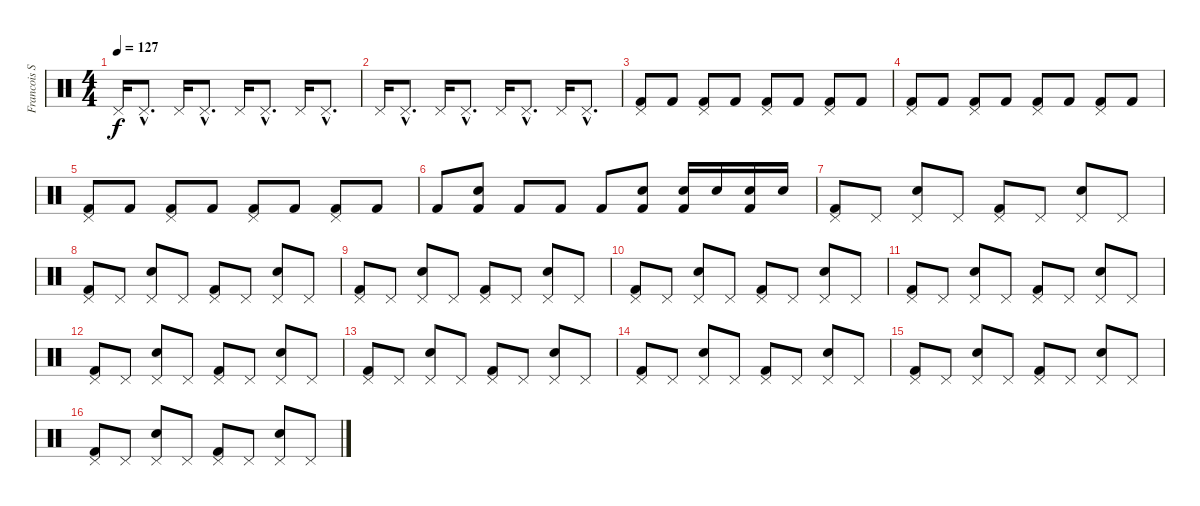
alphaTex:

\track ("Francois Soulier" "Francois S") {instrument percussion}
\staff {score}
\articulation defaults
\ts (4 4)
\tempo 127
\clef neutral
\ks c "Pedal Hi-Hat (hit)".16{dy f} "Pedal Hi-Hat (hit)"{hac}.8{d} "Pedal Hi-Hat (hit)".16 "Pedal Hi-Hat (hit)"{hac}.8{d} "Pedal Hi-Hat (hit)".16 "Pedal Hi-Hat (hit)"{hac}.8{d} "Pedal Hi-Hat (hit)".16 "Pedal Hi-Hat (hit)"{hac}.8{d}
|
"Pedal Hi-Hat (hit)".16 "Pedal Hi-Hat (hit)"{hac}.8{d} "Pedal Hi-Hat (hit)".16 "Pedal Hi-Hat (hit)"{hac}.8{d} "Pedal Hi-Hat (hit)".16 "Pedal Hi-Hat (hit)"{hac}.8{d} "Pedal Hi-Hat (hit)".16 "Pedal Hi-Hat (hit)"{hac}.8{d} |
("Pedal Hi-Hat (hit)" "Kick (hit) 2").8{volume 6} "Kick (hit) 2".8{volume 13} ("Pedal Hi-Hat (hit)" "Kick (hit) 2").8 "Kick (hit) 2".8 ("Pedal Hi-Hat (hit)" "Kick (hit) 2").8 "Kick (hit) 2".8 ("Pedal Hi-Hat (hit)" "Kick (hit) 2").8 "Kick (hit) 2".8 |
("Pedal Hi-Hat (hit)" "Kick (hit) 2").8 "Kick (hit) 2".8 ("Pedal Hi-Hat (hit)" "Kick (hit) 2").8 "Kick (hit) 2".8 ("Pedal Hi-Hat (hit)" "Kick (hit) 2").8 "Kick (hit) 2".8 ("Pedal Hi-Hat (hit)" "Kick (hit) 2").8 "Kick (hit) 2".8 |
("Pedal Hi-Hat (hit)" "Kick (hit) 2").8 "Kick (hit) 2".8 ("Pedal Hi-Hat (hit)" "Kick (hit) 2").8 "Kick (hit) 2".8 ("Pedal Hi-Hat (hit)" "Kick (hit) 2").8 "Kick (hit) 2".8 ("Pedal Hi-Hat (hit)" "Kick (hit) 2").8 "Kick (hit) 2".8 |
"Kick (hit) 2".8 ("Snare (hit) 2" "Kick (hit) 2").8 "Kick (hit) 2".8 "Kick (hit) 2".8 "Kick (hit) 2".8 ("Snare (hit) 2" "Kick (hit) 2").8 ("Snare (hit) 2" "Kick (hit) 2").16 "Snare (hit) 2".16 ("Snare (hit) 2" "Kick (hit) 2").16 "Snare (hit) 2".16 |
("Kick (hit) 2" "Pedal Hi-Hat (hit)").8 "Pedal Hi-Hat (hit)".8 ("Snare (hit) 2" "Pedal Hi-Hat (hit)").8 "Pedal Hi-Hat (hit)".8 ("Kick (hit) 2" "Pedal Hi-Hat (hit)").8 "Pedal Hi-Hat (hit)".8 ("Snare (hit) 2" "Pedal Hi-Hat (hit)").8 "Pedal Hi-Hat (hit)".8 |
("Kick (hit) 2" "Pedal Hi-Hat (hit)").8 "Pedal Hi-Hat (hit)".8 ("Snare (hit) 2" "Pedal Hi-Hat (hit)").8 "Pedal Hi-Hat (hit)".8 ("Kick (hit) 2" "Pedal Hi-Hat (hit)").8 "Pedal Hi-Hat (hit)".8 ("Snare (hit) 2" "Pedal Hi-Hat (hit)").8 "Pedal Hi-Hat (hit)".8 |
("Kick (hit) 2" "Pedal Hi-Hat (hit)").8 "Pedal Hi-Hat (hit)".8 ("Snare (hit) 2" "Pedal Hi-Hat (hit)").8 "Pedal Hi-Hat (hit)".8 ("Kick (hit) 2" "Pedal Hi-Hat (hit)").8 "Pedal Hi-Hat (hit)".8 ("Snare (hit) 2" "Pedal Hi-Hat (hit)").8 "Pedal Hi-Hat (hit)".8 |
("Kick (hit) 2" "Pedal Hi-Hat (hit)").8 "Pedal Hi-Hat (hit)".8 ("Snare (hit) 2" "Pedal Hi-Hat (hit)").8 "Pedal Hi-Hat (hit)".8 ("Kick (hit) 2" "Pedal Hi-Hat (hit)").8 "Pedal Hi-Hat (hit)".8 ("Snare (hit) 2" "Pedal Hi-Hat (hit)").8 "Pedal Hi-Hat (hit)".8 |
("Kick (hit) 2" "Pedal Hi-Hat (hit)").8 "Pedal Hi-Hat (hit)".8 ("Snare (hit) 2" "Pedal Hi-Hat (hit)").8 "Pedal Hi-Hat (hit)".8 ("Kick (hit) 2" "Pedal Hi-Hat (hit)").8 "Pedal Hi-Hat (hit)".8 ("Snare (hit) 2" "Pedal Hi-Hat (hit)").8 "Pedal Hi-Hat (hit)".8 |
("Kick (hit) 2" "Pedal Hi-Hat (hit)").8 "Pedal Hi-Hat (hit)".8 ("Snare (hit) 2" "Pedal Hi-Hat (hit)").8 "Pedal Hi-Hat (hit)".8 ("Kick (hit) 2" "Pedal Hi-Hat (hit)").8 "Pedal Hi-Hat (hit)".8 ("Snare (hit) 2" "Pedal Hi-Hat (hit)").8 "Pedal Hi-Hat (hit)".8 |
("Kick (hit) 2" "Pedal Hi-Hat (hit)").8 "Pedal Hi-Hat (hit)".8 ("Snare (hit) 2" "Pedal Hi-Hat (hit)").8 "Pedal Hi-Hat (hit)".8 ("Kick (hit) 2" "Pedal Hi-Hat (hit)").8 "Pedal Hi-Hat (hit)".8 ("Snare (hit) 2" "Pedal Hi-Hat (hit)").8 "Pedal Hi-Hat (hit)".8 |
("Kick (hit) 2" "Pedal Hi-Hat (hit)").8 "Pedal Hi-Hat (hit)".8 ("Snare (hit) 2" "Pedal Hi-Hat (hit)").8 "Pedal Hi-Hat (hit)".8 ("Kick (hit) 2" "Pedal Hi-Hat (hit)").8 "Pedal Hi-Hat (hit)".8 ("Snare (hit) 2" "Pedal Hi-Hat (hit)").8 "Pedal Hi-Hat (hit)".8 |
("Kick (hit) 2" "Pedal Hi-Hat (hit)").8 "Pedal Hi-Hat (hit)".8 ("Snare (hit) 2" "Pedal Hi-Hat (hit)").8 "Pedal Hi-Hat (hit)".8 ("Kick (hit) 2" "Pedal Hi-Hat (hit)").8 "Pedal Hi-Hat (hit)".8 ("Snare (hit) 2" "Pedal Hi-Hat (hit)").8 "Pedal Hi-Hat (hit)".8 |
("Kick (hit) 2" "Pedal Hi-Hat (hit)").8 "Pedal Hi-Hat (hit)".8 ("Snare (hit) 2" "Pedal Hi-Hat (hit)").8 "Pedal Hi-Hat (hit)".8 ("Kick (hit) 2" "Pedal Hi-Hat (hit)").8 "Pedal Hi-Hat (hit)".8 ("Snare (hit) 2" "Pedal Hi-Hat (hit)").8 "Pedal Hi-Hat (hit)".8
